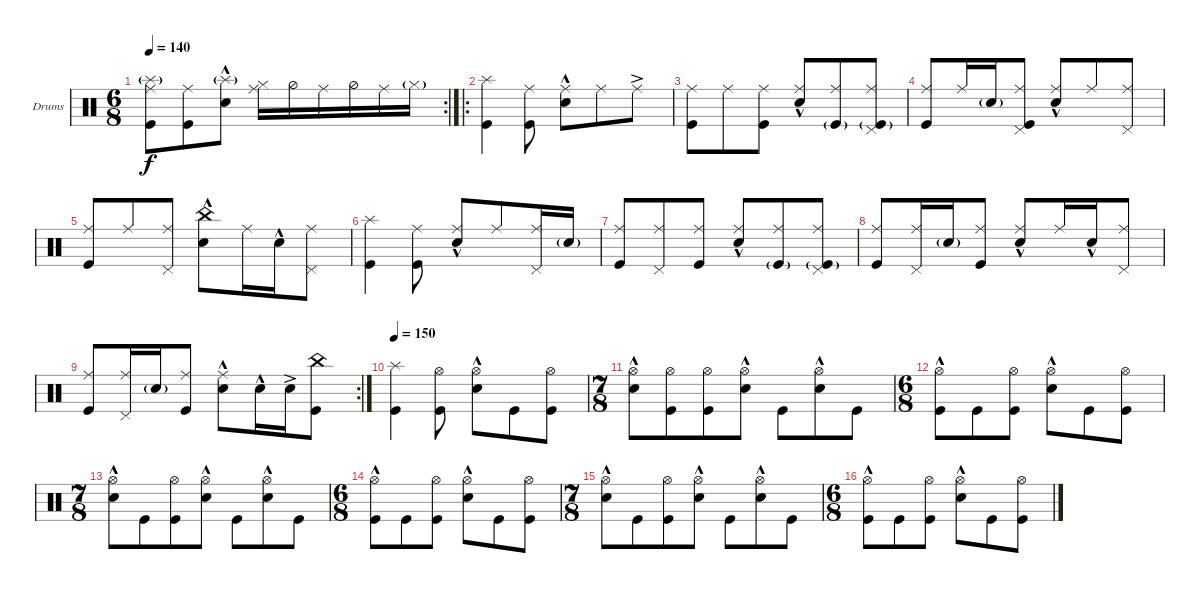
\defaultSystemsLayout 4
\bracketExtendMode groupsimilarinstruments
\firstSystemTrackNameOrientation horizontal
\otherSystemsTrackNameOrientation horizontal
\track ("Drumkit" "Drums") {instrument percussion}
\staff {score}
\articulation defaults
\rc 2
\ts (6 8)
\tempo 140
\clef neutral
\scale
0.333333
\ks c
("Kick (hit)" "Splash (hit)"{g} "Ride (middle)").8{dy f} ("Kick (hit)" "Ride (middle)").8 ("Snare (hit) 2"{hac} "Splash (hit)"{g}).8 ("Hi-Hat (closed)" "Ride (middle)").16 "Hi-Hat (half)".16 "Ride (middle)".16 "Hi-Hat (half)".16 "Ride (middle)".16 "Hi-Hat (closed)"{g}.16 |
\ro
\scale
0.365591 ("Splash (hit)" "Kick (hit)").4 ("Kick (hit)" "Ride (middle)").8 ("Snare (hit) 2"{hac} "Ride (middle)").8 "Ride (middle)".8 "Ride (middle)"{ac}.8 |
\scale
0.333333 ("Ride (middle)" "Kick (hit)").8 "Ride (middle)".8 ("Ride (middle)" "Kick (hit)").8 ("Ride (middle)" "Snare (hit) 2"{hac}).8 ("Ride (middle)" "Kick (hit)"{g}).8 ("Ride (middle)" "Kick (hit)"{g} "Pedal Hi-Hat (hit)").8 |
\scale
0.333333 ("Ride (middle)" "Kick (hit)").8 "Ride (middle)".16 "Snare (hit) 2"{g}.16 ("Ride (middle)" "Kick (hit)" "Pedal Hi-Hat (hit)").8 ("Ride (middle)" "Snare (hit) 2"{hac}).8 "Ride (middle)".8 ("Ride (middle)" "Pedal Hi-Hat (hit)").8 |
\scale
0.333333 ("Ride (middle)" "Kick (hit)").8 "Ride (middle)".8 ("Ride (middle)" "Pedal Hi-Hat (hit)").8 ("Snare (hit) 2"{hac} "China (hit)").8 "Ride (middle)".16 "Snare (hit) 2"{hac}.16 ("Ride (middle)" "Pedal Hi-Hat (hit)").8 |
\scale
0.333333 ("Kick (hit)" "Splash (hit)").4 ("Ride (middle)" "Kick (hit)").8 ("Ride (middle)" "Snare (hit) 2"{hac}).8 "Ride (middle)".8 ("Ride (middle)" "Pedal Hi-Hat (hit)").16 "Snare (hit) 2"{g}.16 |
\scale
0.333333 ("Ride (middle)" "Kick (hit)").8 ("Ride (middle)" "Pedal Hi-Hat (hit)").8 ("Ride (middle)" "Kick (hit)").8 ("Ride (middle)" "Snare (hit) 2"{hac}).8 ("Ride (middle)" "Kick (hit)"{g}).8 ("Ride (middle)" "Pedal Hi-Hat (hit)" "Kick (hit)"{g}).8 |
\scale
0.333333 ("Ride (middle)" "Kick (hit)").8 ("Ride (middle)" "Pedal Hi-Hat (hit)").16 "Snare (hit) 2"{g}.16 ("Ride (middle)" "Kick (hit)").8 ("Snare (hit) 2"{hac} "Ride (middle)"{hac}).8 "Ride (middle)".16 "Snare (hit) 2"{hac}.16 ("Ride (middle)" "Pedal Hi-Hat (hit)").8 |
\rc 2
\scale
0.283105 ("Ride (middle)" "Kick (hit)").8 ("Ride (middle)" "Pedal Hi-Hat (hit)").16 "Snare (hit) 2"{g}.16 ("Ride (middle)" "Kick (hit)").8 ("Snare (hit) 2"{hac} "Ride (middle)"{hac}).8 "Snare (hit) 2"{hac}.16 "Snare (hit) 2"{ac}.16 ("Kick (hit)" "China (hit)").8 |
\tempo 150
\scale
0.255708 ("Splash (hit)" "Kick (hit)").4 ("Kick (hit)" "Hi-Hat (open)").8 ("Hi-Hat (open)"{hac} "Snare (hit) 2").8 "Kick (hit)".8 ("Kick (hit)" "Hi-Hat (open)").8 |
\ts (7 8)
\scale
0.461187 ("Snare (hit) 2"{hac} "Hi-Hat (open)"{hac}).8 ("Kick (hit)" "Hi-Hat (open)").8 ("Kick (hit)" "Hi-Hat (open)").8 ("Snare (hit) 2"{hac} "Hi-Hat (open)"{hac}).8 "Kick (hit)".8 ("Snare (hit) 2"{hac} "Hi-Hat (open)"{hac}).8 "Kick (hit)".8 |
\ts (6 8)
\scale
0.333333 ("Kick (hit)" "Hi-Hat (open)"{hac}).8 "Kick (hit)".8 ("Kick (hit)" "Hi-Hat (open)").8 ("Hi-Hat (open)"{hac} "Snare (hit) 2").8 "Kick (hit)".8 ("Kick (hit)" "Hi-Hat (open)").8 |
\ts (7 8)
\scale
0.333333 ("Snare (hit) 2"{hac} "Hi-Hat (open)"{hac}).8 "Kick (hit)".8 ("Kick (hit)" "Hi-Hat (open)").8 ("Snare (hit) 2"{hac} "Hi-Hat (open)"{hac}).8 "Kick (hit)".8 ("Snare (hit) 2"{hac} "Hi-Hat (open)"{hac}).8 "Kick (hit)".8 |
\ts (6 8)
\scale
0.333333 ("Kick (hit)" "Hi-Hat (open)"{hac}).8 "Kick (hit)".8 ("Kick (hit)" "Hi-Hat (open)").8 ("Hi-Hat (open)"{hac} "Snare (hit) 2").8 "Kick (hit)".8 ("Kick (hit)" "Hi-Hat (open)").8 |
\ts (7 8)
\scale
0.333333 ("Snare (hit) 2"{hac} "Hi-Hat (open)"{hac}).8 "Kick (hit)".8 ("Kick (hit)" "Hi-Hat (open)").8 ("Snare (hit) 2"{hac} "Hi-Hat (open)"{hac}).8 "Kick (hit)".8 ("Snare (hit) 2"{hac} "Hi-Hat (open)"{hac}).8 "Kick (hit)".8 |
\ts (6 8)
\scale
0.333333 ("Kick (hit)" "Hi-Hat (open)"{hac}).8 "Kick (hit)".8 ("Kick (hit)" "Hi-Hat (open)").8 ("Hi-Hat (open)"{hac} "Snare (hit) 2").8 "Kick (hit)".8 ("Kick (hit)" "Hi-Hat (open)").8
